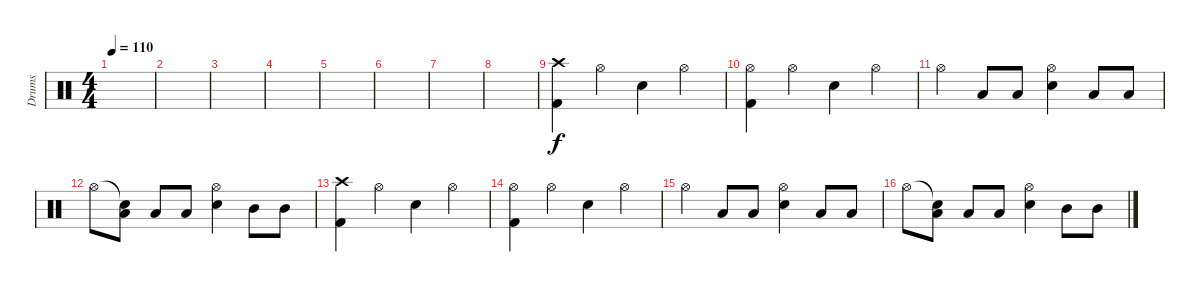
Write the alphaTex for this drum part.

\track ("Drums" "Drums") {instrument percussion}
\staff {score}
\articulation defaults
\ts (4 4)
\tempo 110
\clef neutral
\ks c
|
|
|
|
|
|
|
|
("Crash high (hit)" "Kick (hit) 2").4 "Hi-Hat (open)".4 "Snare (hit) 2".4 "Hi-Hat (open)".4 |
("Hi-Hat (open)" "Kick (hit) 2").4 "Hi-Hat (open)".4 "Snare (hit) 2".4 "Hi-Hat (open)".4 |
"Hi-Hat (open)".4 "Low Tom (hit)".8 "Low Tom (hit)".8 ("Hi-Hat (open)" "Snare (hit) 2").4 "Low Tom (hit)".8 "Low Tom (hit)".8 |
"Hi-Hat (open)".8 ("Snare (hit)"{t} "Low Tom (hit)").8 "Low Tom (hit)".8 "Low Tom (hit)".8 ("Hi-Hat (open)" "Snare (hit) 2").4 "Mid Tom (hit)".8 "Mid Tom (hit)".8 |
("Crash high (hit)" "Kick (hit) 2").4 "Hi-Hat (open)".4 "Snare (hit) 2".4 "Hi-Hat (open)".4 |
("Hi-Hat (open)" "Kick (hit) 2").4 "Hi-Hat (open)".4 "Snare (hit) 2".4 "Hi-Hat (open)".4 |
"Hi-Hat (open)".4 "Low Tom (hit)".8 "Low Tom (hit)".8 ("Hi-Hat (open)" "Snare (hit) 2").4 "Low Tom (hit)".8 "Low Tom (hit)".8 |
"Hi-Hat (open)".8 ("Snare (hit)"{t} "Low Tom (hit)").8 "Low Tom (hit)".8 "Low Tom (hit)".8 ("Hi-Hat (open)" "Snare (hit) 2").4 "Mid Tom (hit)".8 "Mid Tom (hit)".8
